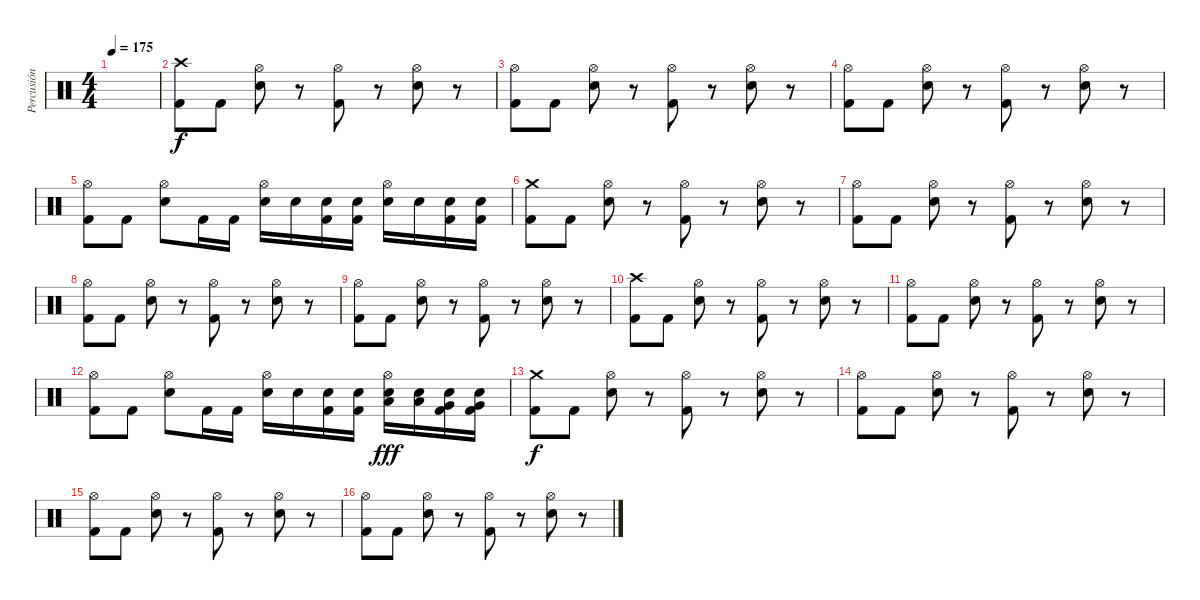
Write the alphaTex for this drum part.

\track ("Percusión" "Percusión") {instrument percussion}
\staff {score}
\articulation defaults
\ts (4 4)
\tempo 175
\clef neutral
\ks c
|
("Crash high (hit)" "Kick (hit) 2").8{dy f} "Kick (hit) 2".8 ("Hi-Hat (open)" "Electric Snare (hit)").8 r.8 ("Hi-Hat (open)" "Kick (hit) 2").8 r.8 ("Hi-Hat (open)" "Electric Snare (hit)").8 r.8 |
("Hi-Hat (open)" "Kick (hit) 2").8 "Kick (hit) 2".8 ("Hi-Hat (open)" "Electric Snare (hit)").8 r.8 ("Hi-Hat (open)" "Kick (hit) 2").8 r.8 ("Hi-Hat (open)" "Electric Snare (hit)").8 r.8 |
("Hi-Hat (open)" "Kick (hit) 2").8 "Kick (hit) 2".8 ("Hi-Hat (open)" "Electric Snare (hit)").8 r.8 ("Hi-Hat (open)" "Kick (hit) 2").8 r.8 ("Hi-Hat (open)" "Electric Snare (hit)").8 r.8 |
("Hi-Hat (open)" "Kick (hit) 2").8 "Kick (hit) 2".8 ("Hi-Hat (open)" "Electric Snare (hit)").8 "Kick (hit) 2".16 "Kick (hit) 2".16 ("Hi-Hat (open)" "Electric Snare (hit)").16 "Electric Snare (hit)".16 ("Electric Snare (hit)" "Kick (hit) 2").16 ("Electric Snare (hit)" "Kick (hit) 2").16 ("Hi-Hat (open)" "Electric Snare (hit)").16 "Electric Snare (hit)".16 ("Electric Snare (hit)" "Kick (hit) 2").16 ("Electric Snare (hit)" "Kick (hit) 2").16 |
("Crash medium (hit)" "Kick (hit) 2").8 "Kick (hit) 2".8 ("Hi-Hat (open)" "Electric Snare (hit)").8 r.8 ("Hi-Hat (open)" "Kick (hit) 2").8 r.8 ("Hi-Hat (open)" "Electric Snare (hit)").8 r.8 |
("Hi-Hat (open)" "Kick (hit) 2").8 "Kick (hit) 2".8 ("Hi-Hat (open)" "Electric Snare (hit)").8 r.8 ("Hi-Hat (open)" "Kick (hit) 2").8 r.8 ("Hi-Hat (open)" "Electric Snare (hit)").8 r.8 |
("Hi-Hat (open)" "Kick (hit) 2").8 "Kick (hit) 2".8 ("Hi-Hat (open)" "Electric Snare (hit)").8 r.8 ("Hi-Hat (open)" "Kick (hit) 2").8 r.8 ("Hi-Hat (open)" "Electric Snare (hit)").8 r.8 |
("Hi-Hat (open)" "Kick (hit) 2").8 "Kick (hit) 2".8 ("Hi-Hat (open)" "Electric Snare (hit)").8 r.8 ("Hi-Hat (open)" "Kick (hit) 2").8 r.8 ("Hi-Hat (open)" "Electric Snare (hit)").8 r.8 |
("Crash high (hit)" "Kick (hit) 2").8 "Kick (hit) 2".8 ("Hi-Hat (open)" "Electric Snare (hit)").8 r.8 ("Hi-Hat (open)" "Kick (hit) 2").8 r.8 ("Hi-Hat (open)" "Electric Snare (hit)").8 r.8 |
("Hi-Hat (open)" "Kick (hit) 2").8 "Kick (hit) 2".8 ("Hi-Hat (open)" "Electric Snare (hit)").8 r.8 ("Hi-Hat (open)" "Kick (hit) 2").8 r.8 ("Hi-Hat (open)" "Electric Snare (hit)").8 r.8 |
("Hi-Hat (open)" "Kick (hit) 2").8 "Kick (hit) 2".8 ("Hi-Hat (open)" "Electric Snare (hit)").8 "Kick (hit) 2".16 "Kick (hit) 2".16 ("Hi-Hat (open)" "Electric Snare (hit)").16 "Electric Snare (hit)".16 ("Electric Snare (hit)" "Kick (hit) 2").16 ("Electric Snare (hit)" "Kick (hit) 2").16 ("Hi-Hat (open)" "Electric Snare (hit)" "Low Tom (hit)").16{dy fff} ("Electric Snare (hit)" "Low Tom (hit)").16 ("Electric Snare (hit)" "Very Low Tom (hit)" "Kick (hit) 2").16 ("Electric Snare (hit)" "Very Low Tom (hit)" "Kick (hit) 2").16 |
("Crash medium (hit)" "Kick (hit) 2").8{dy f} "Kick (hit) 2".8 ("Hi-Hat (open)" "Electric Snare (hit)").8 r.8 ("Hi-Hat (open)" "Kick (hit) 2").8 r.8 ("Hi-Hat (open)" "Electric Snare (hit)").8 r.8 |
("Hi-Hat (open)" "Kick (hit) 2").8 "Kick (hit) 2".8 ("Hi-Hat (open)" "Electric Snare (hit)").8 r.8 ("Hi-Hat (open)" "Kick (hit) 2").8 r.8 ("Hi-Hat (open)" "Electric Snare (hit)").8 r.8 |
("Hi-Hat (open)" "Kick (hit) 2").8 "Kick (hit) 2".8 ("Hi-Hat (open)" "Electric Snare (hit)").8 r.8 ("Hi-Hat (open)" "Kick (hit) 2").8 r.8 ("Hi-Hat (open)" "Electric Snare (hit)").8 r.8 |
("Hi-Hat (open)" "Kick (hit) 2").8 "Kick (hit) 2".8 ("Hi-Hat (open)" "Electric Snare (hit)").8 r.8 ("Hi-Hat (open)" "Kick (hit) 2").8 r.8 ("Hi-Hat (open)" "Electric Snare (hit)").8 r.8
